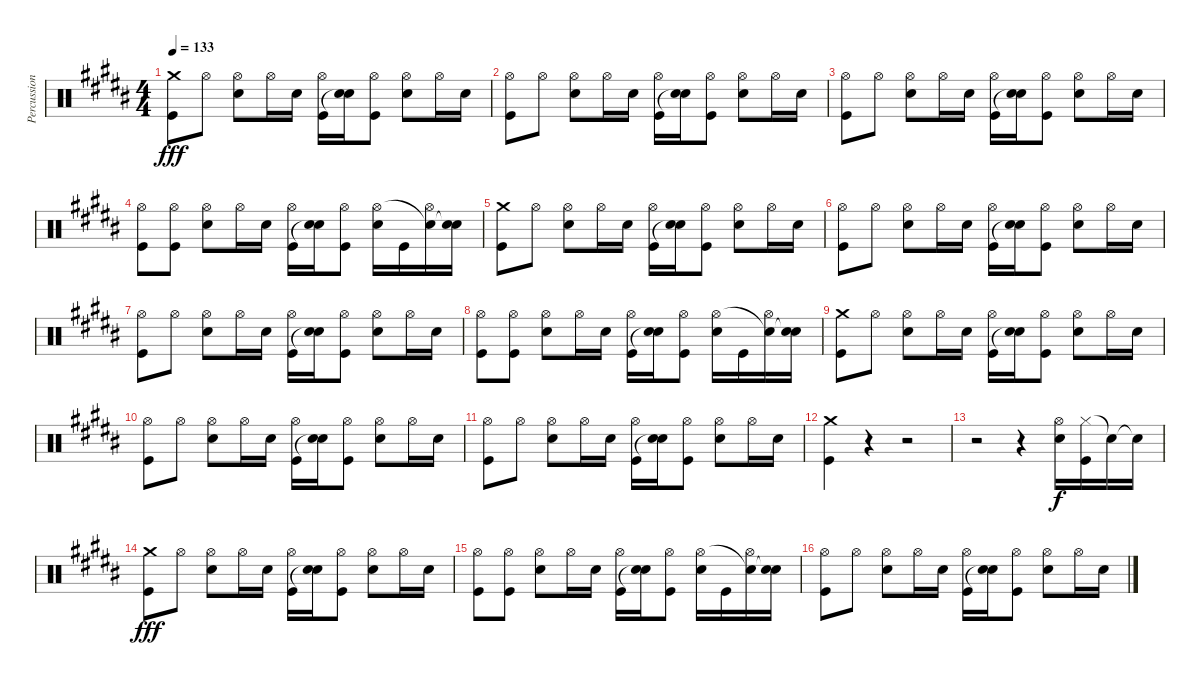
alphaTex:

\track ("Percussion" "Percussion") {instrument percussion}
\staff {score}
\articulation defaults
\ts (4 4)
\tempo 133
\clef neutral
\ks b
("Crash medium (hit)" "Kick (hit)").8{dy fff} "Hi-Hat (open)".8 ("Hi-Hat (open)" "Electric Snare (hit)").8 "Hi-Hat (open)".16 "Electric Snare (hit)".16 ("Hi-Hat (open)" "Kick (hit)").16 ("Electric Snare (hit)" "Snare (hit)"{t}).16 ("Hi-Hat (open)" "Kick (hit)").8 ("Hi-Hat (open)" "Electric Snare (hit)").8 "Hi-Hat (open)".16 "Electric Snare (hit)".16 |
("Hi-Hat (open)" "Kick (hit)").8 "Hi-Hat (open)".8 ("Hi-Hat (open)" "Electric Snare (hit)").8 "Hi-Hat (open)".16 "Electric Snare (hit)".16 ("Hi-Hat (open)" "Kick (hit)").16 ("Electric Snare (hit)" "Snare (hit)"{t}).16 ("Hi-Hat (open)" "Kick (hit)").8 ("Hi-Hat (open)" "Electric Snare (hit)").8 "Hi-Hat (open)".16 "Electric Snare (hit)".16 |
("Hi-Hat (open)" "Kick (hit)").8 "Hi-Hat (open)".8 ("Hi-Hat (open)" "Electric Snare (hit)").8 "Hi-Hat (open)".16 "Electric Snare (hit)".16 ("Hi-Hat (open)" "Kick (hit)").16 ("Electric Snare (hit)" "Snare (hit)"{t}).16 ("Hi-Hat (open)" "Kick (hit)").8 ("Hi-Hat (open)" "Electric Snare (hit)").8 "Hi-Hat (open)".16 "Electric Snare (hit)".16 |
("Kick (hit)" "Hi-Hat (open)").8 ("Kick (hit)" "Hi-Hat (open)").8 ("Electric Snare (hit)" "Hi-Hat (open)").8 "Hi-Hat (open)".16 "Electric Snare (hit)".16 ("Kick (hit)" "Hi-Hat (open)").16 ("Snare (hit)"{t} "Electric Snare (hit)").16 ("Kick (hit)" "Hi-Hat (open)").8 ("Electric Snare (hit)" "Hi-Hat (open)").16 "Kick (hit)".16 ("Hi-Hat (open)" "Snare (hit)"{t}).16 ("Electric Snare (hit)" "Snare (hit)"{t}).16 |
("Crash medium (hit)" "Kick (hit)").8 "Hi-Hat (open)".8 ("Hi-Hat (open)" "Electric Snare (hit)").8 "Hi-Hat (open)".16 "Electric Snare (hit)".16 ("Hi-Hat (open)" "Kick (hit)").16 ("Electric Snare (hit)" "Snare (hit)"{t}).16 ("Hi-Hat (open)" "Kick (hit)").8 ("Hi-Hat (open)" "Electric Snare (hit)").8 "Hi-Hat (open)".16 "Electric Snare (hit)".16 |
("Hi-Hat (open)" "Kick (hit)").8 "Hi-Hat (open)".8 ("Hi-Hat (open)" "Electric Snare (hit)").8 "Hi-Hat (open)".16 "Electric Snare (hit)".16 ("Hi-Hat (open)" "Kick (hit)").16 ("Electric Snare (hit)" "Snare (hit)"{t}).16 ("Hi-Hat (open)" "Kick (hit)").8 ("Hi-Hat (open)" "Electric Snare (hit)").8 "Hi-Hat (open)".16 "Electric Snare (hit)".16 |
("Hi-Hat (open)" "Kick (hit)").8 "Hi-Hat (open)".8 ("Hi-Hat (open)" "Electric Snare (hit)").8 "Hi-Hat (open)".16 "Electric Snare (hit)".16 ("Hi-Hat (open)" "Kick (hit)").16 ("Electric Snare (hit)" "Snare (hit)"{t}).16 ("Hi-Hat (open)" "Kick (hit)").8 ("Hi-Hat (open)" "Electric Snare (hit)").8 "Hi-Hat (open)".16 "Electric Snare (hit)".16 |
("Kick (hit)" "Hi-Hat (open)").8 ("Kick (hit)" "Hi-Hat (open)").8 ("Electric Snare (hit)" "Hi-Hat (open)").8 "Hi-Hat (open)".16 "Electric Snare (hit)".16 ("Kick (hit)" "Hi-Hat (open)").16 ("Snare (hit)"{t} "Electric Snare (hit)").16 ("Kick (hit)" "Hi-Hat (open)").8 ("Electric Snare (hit)" "Hi-Hat (open)").16 "Kick (hit)".16 ("Hi-Hat (open)" "Snare (hit)"{t}).16 ("Electric Snare (hit)" "Snare (hit)"{t}).16 |
("Crash medium (hit)" "Kick (hit)").8 "Hi-Hat (open)".8 ("Hi-Hat (open)" "Electric Snare (hit)").8 "Hi-Hat (open)".16 "Electric Snare (hit)".16 ("Hi-Hat (open)" "Kick (hit)").16 ("Electric Snare (hit)" "Snare (hit)"{t}).16 ("Hi-Hat (open)" "Kick (hit)").8 ("Hi-Hat (open)" "Electric Snare (hit)").8 "Hi-Hat (open)".16 "Electric Snare (hit)".16 |
("Hi-Hat (open)" "Kick (hit)").8 "Hi-Hat (open)".8 ("Hi-Hat (open)" "Electric Snare (hit)").8 "Hi-Hat (open)".16 "Electric Snare (hit)".16 ("Hi-Hat (open)" "Kick (hit)").16 ("Electric Snare (hit)" "Snare (hit)"{t}).16 ("Hi-Hat (open)" "Kick (hit)").8 ("Hi-Hat (open)" "Electric Snare (hit)").8 "Hi-Hat (open)".16 "Electric Snare (hit)".16 |
("Hi-Hat (open)" "Kick (hit)").8 "Hi-Hat (open)".8 ("Hi-Hat (open)" "Electric Snare (hit)").8 "Hi-Hat (open)".16 "Electric Snare (hit)".16 ("Hi-Hat (open)" "Kick (hit)").16 ("Electric Snare (hit)" "Snare (hit)"{t}).16 ("Hi-Hat (open)" "Kick (hit)").8 ("Hi-Hat (open)" "Electric Snare (hit)").8 "Hi-Hat (open)".16 "Electric Snare (hit)".16 |
("Crash medium (hit)" "Kick (hit)").4 r.4 r.2 |
r.2 r.4 ("Hi-Hat (open)" "Electric Snare (hit)").16{dy f} ("Hi-Hat (closed)" "Kick (hit)").16 "Snare (hit)"{t}.16 "Snare (hit)"{t}.16 |
("Crash medium (hit)" "Kick (hit)").8{dy fff} "Hi-Hat (open)".8 ("Hi-Hat (open)" "Electric Snare (hit)").8 "Hi-Hat (open)".16 "Electric Snare (hit)".16 ("Hi-Hat (open)" "Kick (hit)").16 ("Electric Snare (hit)" "Snare (hit)"{t}).16 ("Hi-Hat (open)" "Kick (hit)").8 ("Hi-Hat (open)" "Electric Snare (hit)").8 "Hi-Hat (open)".16 "Electric Snare (hit)".16 |
("Kick (hit)" "Hi-Hat (open)").8 ("Kick (hit)" "Hi-Hat (open)").8 ("Electric Snare (hit)" "Hi-Hat (open)").8 "Hi-Hat (open)".16 "Electric Snare (hit)".16 ("Kick (hit)" "Hi-Hat (open)").16 ("Snare (hit)"{t} "Electric Snare (hit)").16 ("Kick (hit)" "Hi-Hat (open)").8 ("Electric Snare (hit)" "Hi-Hat (open)").16 "Kick (hit)".16 ("Hi-Hat (open)" "Snare (hit)"{t}).16 ("Electric Snare (hit)" "Snare (hit)"{t}).16 |
("Hi-Hat (open)" "Kick (hit)").8 "Hi-Hat (open)".8 ("Hi-Hat (open)" "Electric Snare (hit)").8 "Hi-Hat (open)".16 "Electric Snare (hit)".16 ("Hi-Hat (open)" "Kick (hit)").16 ("Electric Snare (hit)" "Snare (hit)"{t}).16 ("Hi-Hat (open)" "Kick (hit)").8 ("Hi-Hat (open)" "Electric Snare (hit)").8 "Hi-Hat (open)".16 "Electric Snare (hit)".16
